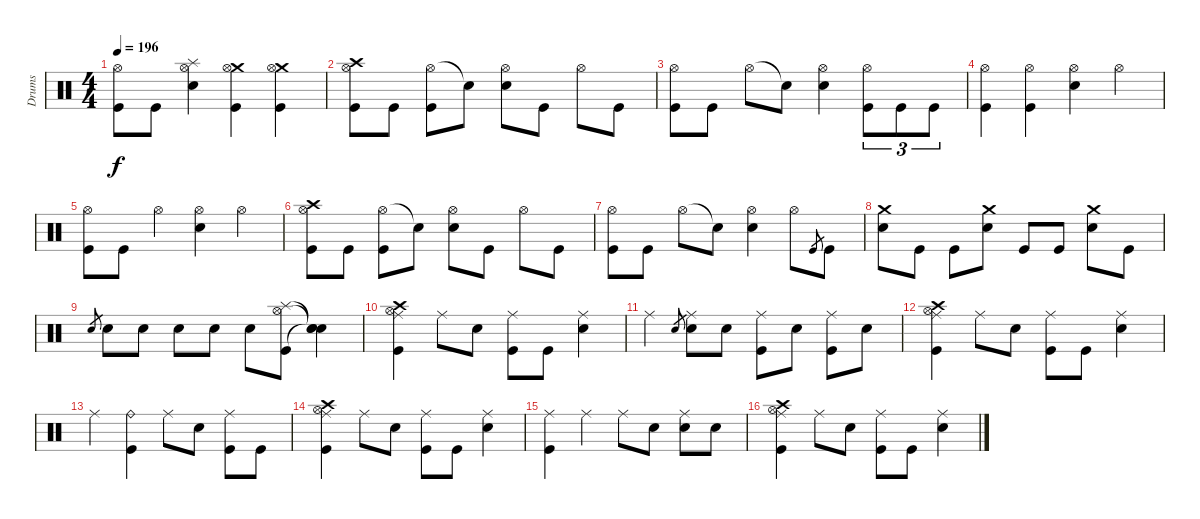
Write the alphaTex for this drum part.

\track ("Drums" "Drums") {instrument percussion}
\staff {score}
\articulation defaults
\ts (4 4)
\tempo 196
\clef neutral
\ks c
("Hi-Hat (open)" "Kick (hit)").8{dy f} "Kick (hit)".8 ("Splash (hit)" "Hi-Hat (open)" "Electric Snare (hit)").4 ("Crash medium (hit)" "Hi-Hat (open)" "Kick (hit)").4 ("Crash medium (hit)" "Hi-Hat (open)" "Kick (hit)").4 |
("Crash high (hit)" "Hi-Hat (open)" "Kick (hit)").8 "Kick (hit)".8 ("Hi-Hat (open)" "Kick (hit)").8 "Snare (hit)"{t}.8 ("Hi-Hat (open)" "Electric Snare (hit)").8 "Kick (hit)".8 "Hi-Hat (open)".8 "Kick (hit)".8 |
("Hi-Hat (open)" "Kick (hit)").8 "Kick (hit)".8 "Hi-Hat (open)".8 "Snare (hit)"{t}.8 ("Hi-Hat (open)" "Electric Snare (hit)").4 ("Hi-Hat (open)" "Kick (hit)").8{tu (3 2)} "Kick (hit)".8{tu (3 2)} "Kick (hit)".8{tu (3 2)} |
("Hi-Hat (open)" "Kick (hit)").4 ("Hi-Hat (open)" "Kick (hit)").4 ("Hi-Hat (open)" "Electric Snare (hit)").4 "Hi-Hat (open)".4 |
("Hi-Hat (open)" "Kick (hit)").8 "Kick (hit)".8 "Hi-Hat (open)".4 ("Hi-Hat (open)" "Electric Snare (hit)").4 "Hi-Hat (open)".4 |
("Crash high (hit)" "Hi-Hat (open)" "Kick (hit)").8 "Kick (hit)".8 ("Hi-Hat (open)" "Kick (hit)").8 "Snare (hit)"{t}.8 ("Hi-Hat (open)" "Electric Snare (hit)").8 "Kick (hit)".8 "Hi-Hat (open)".8 "Kick (hit)".8 |
("Hi-Hat (open)" "Kick (hit)").8 "Kick (hit)".8 "Hi-Hat (open)".8 "Snare (hit)"{t}.8 ("Hi-Hat (open)" "Electric Snare (hit)").4 "Hi-Hat (open)".8 "Kick (hit)".8{gr} "Kick (hit)".8 |
("Crash medium (hit)" "Electric Snare (hit)").8 "Kick (hit)".8 "Kick (hit)".8 ("Crash medium (hit)" "Electric Snare (hit)").8 "Kick (hit)".8 "Kick (hit)".8 ("Crash medium (hit)" "Electric Snare (hit)").8 "Kick (hit)".8 |
"Electric Snare (hit)".8{gr} "Electric Snare (hit)".8 "Electric Snare (hit)".8 "Electric Snare (hit)".8 "Electric Snare (hit)".8 "Electric Snare (hit)".8 ("Splash (hit)" "Hi-Hat (open)" "Kick (hit)").8 ("Snare (hit)"{t} "Snare (hit)"{t} "Snare (hit)"{t}).4 |
("Ride (middle)" "Crash high (hit)" "Hi-Hat (open)" "Kick (hit)").4 "Ride (middle)".8 "Electric Snare (hit)".8 ("Ride (middle)" "Kick (hit)").8 "Kick (hit)".8 ("Ride (middle)" "Electric Snare (hit)").4 |
"Ride (middle)".4 "Electric Snare (hit)".8{gr} ("Ride (middle)" "Electric Snare (hit)").8 "Electric Snare (hit)".8 ("Ride (middle)" "Kick (hit)").8 "Electric Snare (hit)".8 ("Ride (middle)" "Kick (hit)").8 "Electric Snare (hit)".8 |
("Ride (middle)" "Crash high (hit)" "Hi-Hat (open)" "Kick (hit)").4 "Ride (middle)".8 "Electric Snare (hit)".8 ("Ride (middle)" "Kick (hit)").8 "Kick (hit)".8 ("Ride (middle)" "Electric Snare (hit)").4 |
"Ride (middle)".4 ("Ride (bell)" "Kick (hit)").4 "Ride (middle)".8 "Electric Snare (hit)".8 ("Ride (middle)" "Kick (hit)").8 "Kick (hit)".8 |
("Ride (middle)" "Crash high (hit)" "Hi-Hat (open)" "Kick (hit)").4 "Ride (middle)".8 "Electric Snare (hit)".8 ("Ride (middle)" "Kick (hit)").8 "Kick (hit)".8 ("Ride (middle)" "Electric Snare (hit)").4 |
("Ride (middle)" "Kick (hit)").4 "Ride (middle)".4 "Ride (middle)".8 "Electric Snare (hit)".8 ("Ride (middle)" "Electric Snare (hit)").8 "Electric Snare (hit)".8 |
("Ride (middle)" "Crash high (hit)" "Hi-Hat (open)" "Kick (hit)").4 "Ride (middle)".8 "Electric Snare (hit)".8 ("Ride (middle)" "Kick (hit)").8 "Kick (hit)".8 ("Ride (middle)" "Electric Snare (hit)").4
